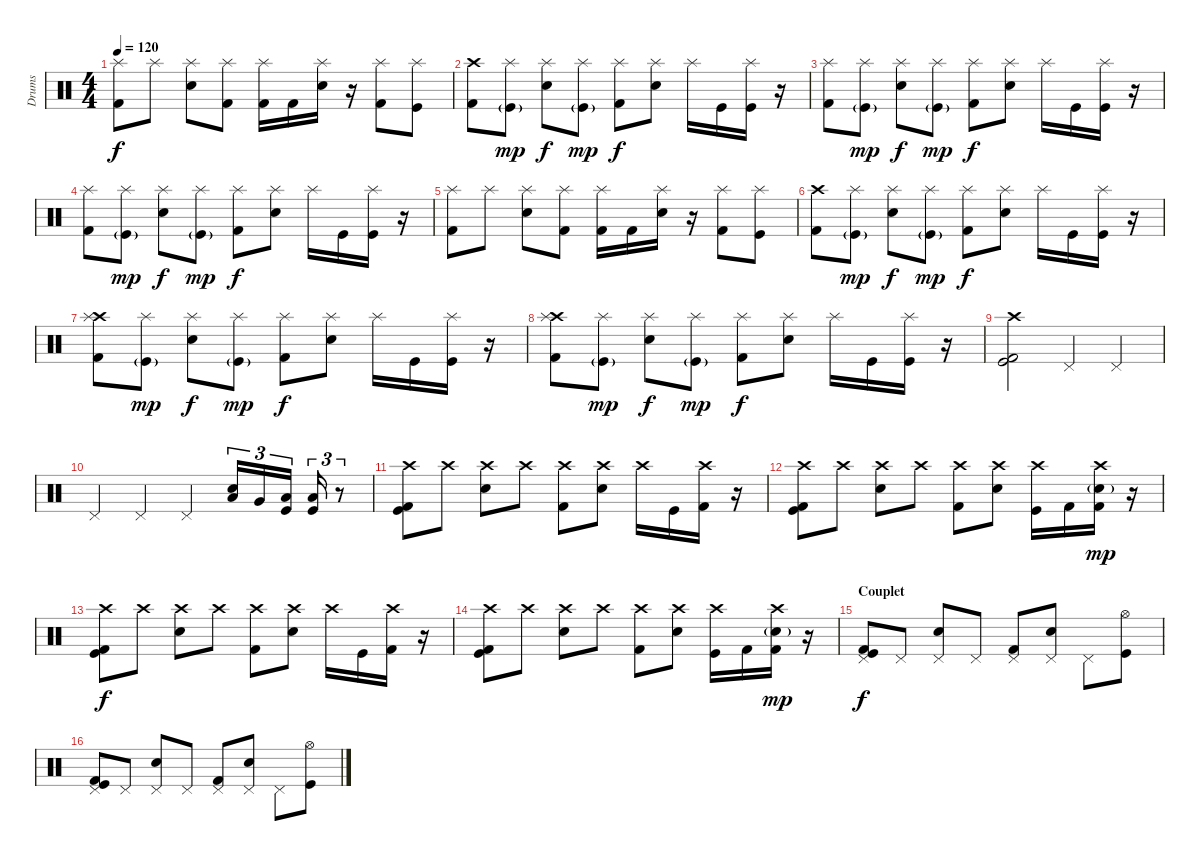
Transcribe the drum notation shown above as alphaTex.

\track ("Drums" "Drums") {instrument percussion}
\staff {score}
\articulation defaults
\ts (4 4)
\tempo 120
\clef neutral
\ks c
("Splash (hit)" "Kick (hit) 2").8{dy f} "Splash (hit)".8 ("Splash (hit)" "Electric Snare (hit)").8 ("Splash (hit)" "Kick (hit) 2").8 ("Splash (hit)" "Kick (hit) 2").16 "Kick (hit) 2".16 ("Splash (hit)" "Electric Snare (hit)").16 r.16 ("Splash (hit)" "Kick (hit) 2").8 ("Splash (hit)" "Kick (hit)").8 |
("Crash high (hit)" "Kick (hit) 2").8 ("Splash (hit)" "Kick (hit)"{g}).8{dy mp} ("Splash (hit)" "Electric Snare (hit)").8{dy f} ("Splash (hit)" "Kick (hit)"{g}).8{dy mp} ("Splash (hit)" "Kick (hit) 2").8{dy f} ("Splash (hit)" "Electric Snare (hit)").8 "Splash (hit)".16 "Kick (hit)".16 ("Splash (hit)" "Kick (hit)").16 r.16 |
("Splash (hit)" "Kick (hit) 2").8 ("Splash (hit)" "Kick (hit)"{g}).8{dy mp} ("Splash (hit)" "Electric Snare (hit)").8{dy f} ("Splash (hit)" "Kick (hit)"{g}).8{dy mp} ("Splash (hit)" "Kick (hit) 2").8{dy f} ("Splash (hit)" "Electric Snare (hit)").8 "Splash (hit)".16 "Kick (hit)".16 ("Splash (hit)" "Kick (hit)").16 r.16 |
("Splash (hit)" "Kick (hit) 2").8 ("Splash (hit)" "Kick (hit)"{g}).8{dy mp} ("Splash (hit)" "Electric Snare (hit)").8{dy f} ("Splash (hit)" "Kick (hit)"{g}).8{dy mp} ("Splash (hit)" "Kick (hit) 2").8{dy f} ("Splash (hit)" "Electric Snare (hit)").8 "Splash (hit)".16 "Kick (hit)".16 ("Splash (hit)" "Kick (hit)").16 r.16 |
("Splash (hit)" "Kick (hit) 2").8 "Splash (hit)".8 ("Splash (hit)" "Electric Snare (hit)").8 ("Splash (hit)" "Kick (hit) 2").8 ("Splash (hit)" "Kick (hit) 2").16 "Kick (hit) 2".16 ("Splash (hit)" "Electric Snare (hit)").16 r.16 ("Splash (hit)" "Kick (hit) 2").8 ("Splash (hit)" "Kick (hit)").8 |
("Crash high (hit)" "Kick (hit) 2").8{volume 10} ("Splash (hit)" "Kick (hit)"{g}).8{dy mp} ("Splash (hit)" "Electric Snare (hit)").8{dy f} ("Splash (hit)" "Kick (hit)"{g}).8{dy mp} ("Splash (hit)" "Kick (hit) 2").8{dy f} ("Splash (hit)" "Electric Snare (hit)").8 "Splash (hit)".16 "Kick (hit)".16 ("Splash (hit)" "Kick (hit)").16 r.16 |
("Crash high (hit)" "Splash (hit)" "Kick (hit) 2").8 ("Splash (hit)" "Kick (hit)"{g}).8{dy mp} ("Splash (hit)" "Electric Snare (hit)").8{dy f} ("Splash (hit)" "Kick (hit)"{g}).8{dy mp} ("Splash (hit)" "Kick (hit) 2").8{dy f} ("Splash (hit)" "Electric Snare (hit)").8 "Splash (hit)".16 "Kick (hit)".16 ("Splash (hit)" "Kick (hit)").16 r.16 |
("Crash high (hit)" "Splash (hit)" "Kick (hit) 2").8 ("Splash (hit)" "Kick (hit)"{g}).8{dy mp} ("Splash (hit)" "Electric Snare (hit)").8{dy f} ("Splash (hit)" "Kick (hit)"{g}).8{dy mp} ("Splash (hit)" "Kick (hit) 2").8{dy f} ("Splash (hit)" "Electric Snare (hit)").8 "Splash (hit)".16 "Kick (hit)".16 ("Splash (hit)" "Kick (hit)").16 r.16 |
("Crash high (hit)" "Kick (hit)" "Kick (hit) 2").2{volume 13} "Pedal Hi-Hat (hit)".4 "Pedal Hi-Hat (hit)".4 |
"Pedal Hi-Hat (hit)".4 "Pedal Hi-Hat (hit)".4 "Pedal Hi-Hat (hit)".4 ("Low Tom (hit)" "Electric Snare (hit)").16{tu (3 2)} "Very Low Tom (hit)".16{tu (3 2)} ("Low Tom (hit)" "Kick (hit)").16{tu (3 2)} ("Low Tom (hit)" "Kick (hit)").16{tu (3 2)} r.8{tu (3 2)} |
\section ("" "")
("Crash high (hit)" "Kick (hit) 2" "Kick (hit)").8{volume 12} "Crash high (hit)".8 ("Crash high (hit)" "Electric Snare (hit)").8 "Crash high (hit)".8 ("Crash high (hit)" "Kick (hit) 2").8 ("Crash high (hit)" "Electric Snare (hit)").8 "Crash high (hit)".16 "Kick (hit)".16 ("Crash high (hit)" "Kick (hit) 2").16 r.16 |
("Crash high (hit)" "Kick (hit) 2" "Kick (hit)").8 "Crash high (hit)".8 ("Crash high (hit)" "Electric Snare (hit)").8 "Crash high (hit)".8 ("Crash high (hit)" "Kick (hit) 2").8 ("Crash high (hit)" "Electric Snare (hit)").8 ("Crash high (hit)" "Kick (hit)").16 "Kick (hit) 2".16 ("Crash high (hit)" "Electric Snare (hit)"{g} "Kick (hit) 2").16{dy mp} r.16 |
("Crash high (hit)" "Kick (hit) 2" "Kick (hit)").8{dy f} "Crash high (hit)".8 ("Crash high (hit)" "Electric Snare (hit)").8 "Crash high (hit)".8 ("Crash high (hit)" "Kick (hit) 2").8 ("Crash high (hit)" "Electric Snare (hit)").8 "Crash high (hit)".16 "Kick (hit)".16 ("Crash high (hit)" "Kick (hit) 2").16 r.16 |
("Crash high (hit)" "Kick (hit) 2" "Kick (hit)").8 "Crash high (hit)".8 ("Crash high (hit)" "Electric Snare (hit)").8 "Crash high (hit)".8 ("Crash high (hit)" "Kick (hit) 2").8 ("Crash high (hit)" "Electric Snare (hit)").8 ("Crash high (hit)" "Kick (hit)").16 "Kick (hit) 2".16 ("Crash high (hit)" "Electric Snare (hit)"{g} "Kick (hit) 2").16{dy mp} r.16 |
\section ("" "Couplet")
("Pedal Hi-Hat (hit)" "Kick (hit) 2" "Kick (hit)").8{dy f} "Pedal Hi-Hat (hit)".8 ("Pedal Hi-Hat (hit)" "Electric Snare (hit)").8 "Pedal Hi-Hat (hit)".8 ("Pedal Hi-Hat (hit)" "Kick (hit) 2").8 ("Pedal Hi-Hat (hit)" "Electric Snare (hit)").8 "Pedal Hi-Hat (hit)".8 ("Hi-Hat (open)" "Kick (hit)").8 |
("Pedal Hi-Hat (hit)" "Kick (hit) 2" "Kick (hit)").8 "Pedal Hi-Hat (hit)".8 ("Pedal Hi-Hat (hit)" "Electric Snare (hit)").8 "Pedal Hi-Hat (hit)".8 ("Pedal Hi-Hat (hit)" "Kick (hit) 2").8 ("Pedal Hi-Hat (hit)" "Electric Snare (hit)").8 "Pedal Hi-Hat (hit)".8 ("Hi-Hat (open)" "Kick (hit)").8
